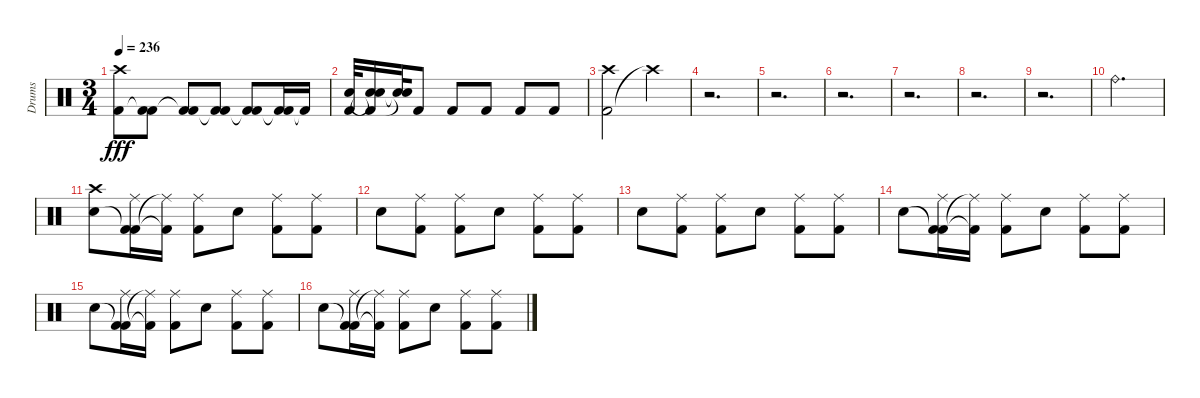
\track ("Drums" "Drums") {instrument percussion}
\staff {score}
\articulation defaults
\ts (3 4)
\tempo 236
\clef neutral
\ks c
("Kick (hit) 2" "Crash high (hit)").8{dy fff} ("Kick (hit) 2"{t} "Kick (hit) 2").8 ("Kick (hit) 2"{t} "Kick (hit) 2").8 ("Kick (hit) 2"{t} "Kick (hit) 2").8 ("Kick (hit) 2"{t} "Kick (hit) 2").8 ("Kick (hit) 2"{t} "Kick (hit) 2").16 "Kick (hit) 2"{t}.16 |
("Snare (hit) 2" "Kick (hit) 2").32 ("Kick (hit) 2"{t} "Snare (hit) 2"{t} "Hand Clap (hit)").16 ("Snare (hit) 2"{t} "Hand Clap (hit)"{t}).32 "Kick (hit) 2".8 "Kick (hit) 2".8 "Kick (hit) 2".8 "Kick (hit) 2".8 "Kick (hit) 2".8 |
("Kick (hit) 2" "Crash high (hit)").2 "Crash high (hit)"{t}.4 |
r.2{d} |
r.2{d} |
r.2{d} |
r.2{d} |
r.2{d} |
r.2{d} |
"Ride (bell)".2{d} |
("Snare (hit) 2" "Crash high (hit)").8 ("Kick (hit) 2"{t} "Kick (hit) 2" "Ride (middle)").16 ("Kick (hit) 2"{t} "Ride (middle)"{t}).16 ("Kick (hit) 2" "Ride (middle)").8 "Snare (hit) 2".8 ("Kick (hit) 2" "Ride (middle)").8 ("Kick (hit) 2" "Ride (middle)").8 |
"Snare (hit) 2".8 ("Kick (hit) 2" "Ride (middle)").8 ("Kick (hit) 2" "Ride (middle)").8 "Snare (hit) 2".8 ("Kick (hit) 2" "Ride (middle)").8 ("Kick (hit) 2" "Ride (middle)").8 |
"Snare (hit) 2".8 ("Kick (hit) 2" "Ride (middle)").8 ("Kick (hit) 2" "Ride (middle)").8 "Snare (hit) 2".8 ("Kick (hit) 2" "Ride (middle)").8 ("Kick (hit) 2" "Ride (middle)").8 |
"Snare (hit) 2".8 ("Kick (hit) 2"{t} "Kick (hit) 2" "Ride (middle)").16 ("Kick (hit) 2"{t} "Ride (middle)"{t}).16 ("Kick (hit) 2" "Ride (middle)").8 "Snare (hit) 2".8 ("Kick (hit) 2" "Ride (middle)").8 ("Kick (hit) 2" "Ride (middle)").8 |
"Snare (hit) 2".8 ("Kick (hit) 2"{t} "Kick (hit) 2" "Ride (middle)").16 ("Kick (hit) 2"{t} "Ride (middle)"{t}).16 ("Kick (hit) 2" "Ride (middle)").8 "Snare (hit) 2".8 ("Kick (hit) 2" "Ride (middle)").8 ("Kick (hit) 2" "Ride (middle)").8 |
"Snare (hit) 2".8 ("Kick (hit) 2"{t} "Kick (hit) 2" "Ride (middle)").16 ("Kick (hit) 2"{t} "Ride (middle)"{t}).16 ("Kick (hit) 2" "Ride (middle)").8 "Snare (hit) 2".8 ("Kick (hit) 2" "Ride (middle)").8 ("Kick (hit) 2" "Ride (middle)").8
